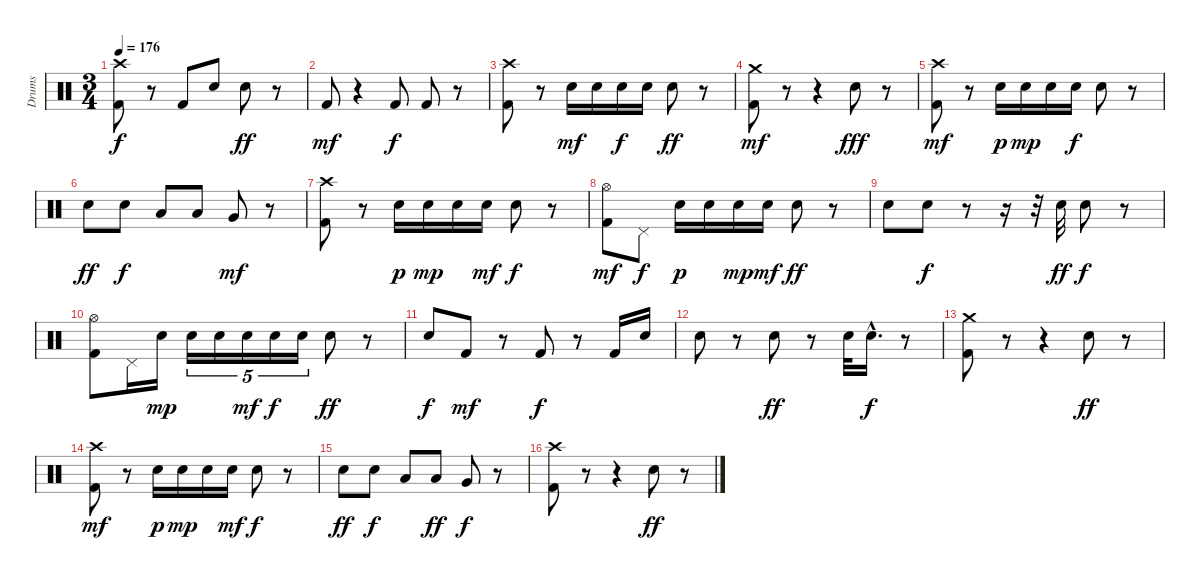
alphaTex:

\track ("Drums" "Drums") {instrument percussion}
\staff {score}
\articulation defaults
\ts (3 4)
\tempo 176
\clef neutral
\ks c
("Crash high (hit)" "Kick (hit) 2").8{dy f} r.8 "Kick (hit) 2".8 "Snare (hit) 2".8 "Snare (hit) 2".8{dy ff} r.8 |
"Kick (hit) 2".8{dy mf} r.4 "Kick (hit) 2".8{dy f} "Kick (hit) 2".8 r.8 |
("Crash high (hit)" "Kick (hit) 2").8 r.8 "Snare (hit) 2".16{dy mf} "Snare (hit) 2".16 "Snare (hit) 2".16{dy f} "Snare (hit) 2".16 "Snare (hit) 2".8{dy ff} r.8 |
("Crash medium (hit)" "Kick (hit) 2").8{dy mf} r.8 r.4 "Snare (hit) 2".8{dy fff} r.8 |
("Crash high (hit)" "Kick (hit) 2").8{dy mf} r.8 "Snare (hit) 2".16{dy p} "Snare (hit) 2".16{dy mp} "Snare (hit) 2".16 "Snare (hit) 2".16{dy f} "Snare (hit) 2".8 r.8 |
"Snare (hit) 2".8{dy ff} "Snare (hit) 2".8{dy f} "Low Tom (hit)".8 "Low Tom (hit)".8 "Very Low Tom (hit)".8{dy mf} r.8 |
("Crash high (hit)" "Kick (hit) 2").8 r.8 "Snare (hit) 2".16{dy p} "Snare (hit) 2".16{dy mp} "Snare (hit) 2".16 "Snare (hit) 2".16{dy mf} "Snare (hit) 2".8{dy f} r.8 |
("Hi-Hat (open)" "Kick (hit) 2").8{dy mf} "Pedal Hi-Hat (hit)".8{dy f} "Snare (hit) 2".16{dy p} "Snare (hit) 2".16 "Snare (hit) 2".16{dy mp} "Snare (hit) 2".16{dy mf} "Snare (hit) 2".8{dy ff} r.8 |
"Snare (hit) 2".8 "Snare (hit) 2".8{dy f} r.8 r.16 r.32 "Snare (hit) 2".32{dy ff} "Snare (hit) 2".8{dy f} r.8 |
("Hi-Hat (open)" "Kick (hit) 2").8 "Pedal Hi-Hat (hit)".16 "Snare (hit) 2".16{dy mp} "Snare (hit) 2".16{tu (5 4)} "Snare (hit) 2".16{tu (5 4)} "Snare (hit) 2".16{tu (5 4) dy mf} "Snare (hit) 2".16{tu (5 4) dy f} "Snare (hit) 2".16{tu (5 4)} "Snare (hit) 2".8{dy ff} r.8 |
"Snare (hit) 2".8{dy f} "Kick (hit) 2".8{dy mf} r.8 "Kick (hit) 2".8{dy f} r.8 "Kick (hit) 2".16 "Snare (hit) 2".16 |
"Snare (hit) 2".8 r.8 "Snare (hit) 2".8{dy ff} r.8 "Snare (hit) 2".32 "Snare (hit) 2"{hac}.16{d dy f} r.8 |
("Crash medium (hit)" "Kick (hit) 2").8 r.8 r.4 "Snare (hit) 2".8{dy ff} r.8 |
("Crash high (hit)" "Kick (hit) 2").8{dy mf} r.8 "Snare (hit) 2".16{dy p} "Snare (hit) 2".16{dy mp} "Snare (hit) 2".16 "Snare (hit) 2".16{dy mf} "Snare (hit) 2".8{dy f} r.8 |
"Snare (hit) 2".8{dy ff} "Snare (hit) 2".8{dy f} "Low Tom (hit)".8 "Low Tom (hit)".8{dy ff} "Very Low Tom (hit)".8{dy f} r.8 |
("Crash high (hit)" "Kick (hit) 2").8 r.8 r.4 "Snare (hit) 2".8{dy ff} r.8
